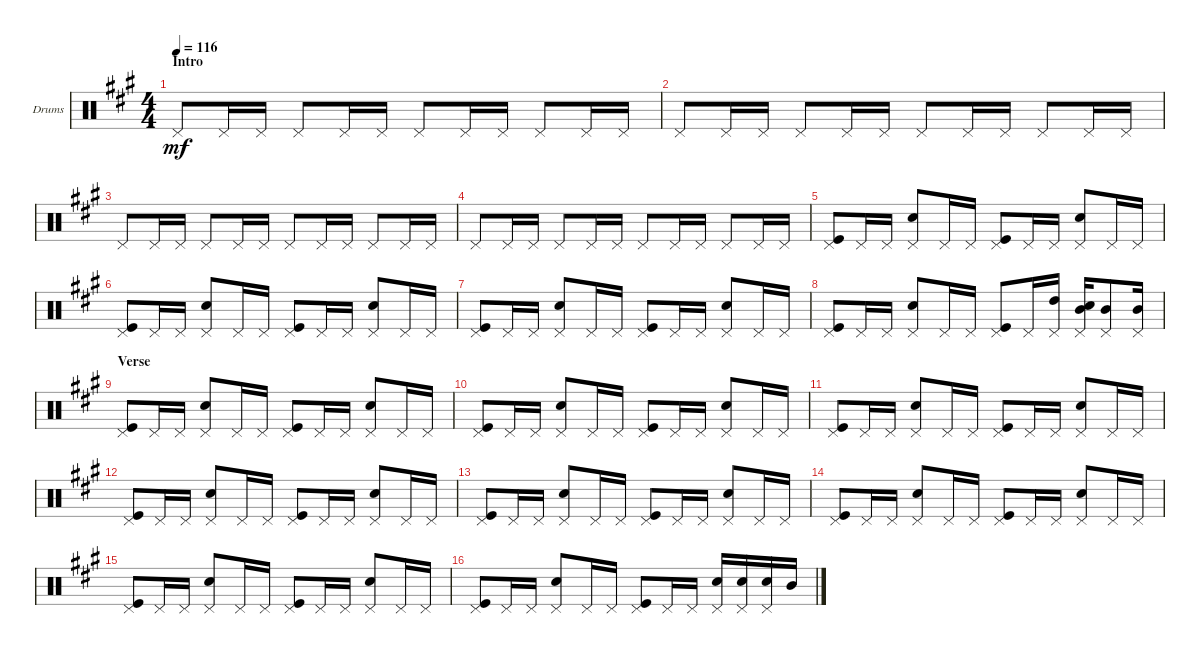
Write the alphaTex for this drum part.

\defaultSystemsLayout 4
\bracketExtendMode groupsimilarinstruments
\firstSystemTrackNameOrientation horizontal
\otherSystemsTrackNameOrientation horizontal
\track ("Drumkit" "Drums") {instrument percussion}
\staff {score}
\articulation defaults
\ts (4 4)
\section ("" "Intro")
\tempo 116
\clef neutral
\ks a "Pedal Hi-Hat (hit)".8{dy mf} "Pedal Hi-Hat (hit)".16 "Pedal Hi-Hat (hit)".16 "Pedal Hi-Hat (hit)".8 "Pedal Hi-Hat (hit)".16 "Pedal Hi-Hat (hit)".16 "Pedal Hi-Hat (hit)".8 "Pedal Hi-Hat (hit)".16 "Pedal Hi-Hat (hit)".16 "Pedal Hi-Hat (hit)".8 "Pedal Hi-Hat (hit)".16 "Pedal Hi-Hat (hit)".16
|
"Pedal Hi-Hat (hit)".8 "Pedal Hi-Hat (hit)".16 "Pedal Hi-Hat (hit)".16 "Pedal Hi-Hat (hit)".8 "Pedal Hi-Hat (hit)".16 "Pedal Hi-Hat (hit)".16 "Pedal Hi-Hat (hit)".8 "Pedal Hi-Hat (hit)".16 "Pedal Hi-Hat (hit)".16 "Pedal Hi-Hat (hit)".8 "Pedal Hi-Hat (hit)".16 "Pedal Hi-Hat (hit)".16 |
"Pedal Hi-Hat (hit)".8 "Pedal Hi-Hat (hit)".16 "Pedal Hi-Hat (hit)".16 "Pedal Hi-Hat (hit)".8 "Pedal Hi-Hat (hit)".16 "Pedal Hi-Hat (hit)".16 "Pedal Hi-Hat (hit)".8 "Pedal Hi-Hat (hit)".16 "Pedal Hi-Hat (hit)".16 "Pedal Hi-Hat (hit)".8 "Pedal Hi-Hat (hit)".16 "Pedal Hi-Hat (hit)".16 |
"Pedal Hi-Hat (hit)".8 "Pedal Hi-Hat (hit)".16 "Pedal Hi-Hat (hit)".16 "Pedal Hi-Hat (hit)".8 "Pedal Hi-Hat (hit)".16 "Pedal Hi-Hat (hit)".16 "Pedal Hi-Hat (hit)".8 "Pedal Hi-Hat (hit)".16 "Pedal Hi-Hat (hit)".16 "Pedal Hi-Hat (hit)".8 "Pedal Hi-Hat (hit)".16 "Pedal Hi-Hat (hit)".16 |
("Pedal Hi-Hat (hit)" "Kick (hit)").8 "Pedal Hi-Hat (hit)".16 "Pedal Hi-Hat (hit)".16 ("Pedal Hi-Hat (hit)" "Snare (hit) 2").8 "Pedal Hi-Hat (hit)".16 "Pedal Hi-Hat (hit)".16 ("Pedal Hi-Hat (hit)" "Kick (hit)").8 "Pedal Hi-Hat (hit)".16 "Pedal Hi-Hat (hit)".16 ("Pedal Hi-Hat (hit)" "Snare (hit) 2").8 "Pedal Hi-Hat (hit)".16 "Pedal Hi-Hat (hit)".16 |
("Pedal Hi-Hat (hit)" "Kick (hit)").8 "Pedal Hi-Hat (hit)".16 "Pedal Hi-Hat (hit)".16 ("Pedal Hi-Hat (hit)" "Snare (hit) 2").8 "Pedal Hi-Hat (hit)".16 "Pedal Hi-Hat (hit)".16 ("Pedal Hi-Hat (hit)" "Kick (hit)").8 "Pedal Hi-Hat (hit)".16 "Pedal Hi-Hat (hit)".16 ("Pedal Hi-Hat (hit)" "Snare (hit) 2").8 "Pedal Hi-Hat (hit)".16 "Pedal Hi-Hat (hit)".16 |
("Pedal Hi-Hat (hit)" "Kick (hit)").8 "Pedal Hi-Hat (hit)".16 "Pedal Hi-Hat (hit)".16 ("Pedal Hi-Hat (hit)" "Snare (hit) 2").8 "Pedal Hi-Hat (hit)".16 "Pedal Hi-Hat (hit)".16 ("Pedal Hi-Hat (hit)" "Kick (hit)").8 "Pedal Hi-Hat (hit)".16 "Pedal Hi-Hat (hit)".16 ("Pedal Hi-Hat (hit)" "Snare (hit) 2").8 "Pedal Hi-Hat (hit)".16 "Pedal Hi-Hat (hit)".16 |
("Pedal Hi-Hat (hit)" "Kick (hit)").8 "Pedal Hi-Hat (hit)".16 "Pedal Hi-Hat (hit)".16 ("Pedal Hi-Hat (hit)" "Snare (hit) 2").8 "Pedal Hi-Hat (hit)".16 "Pedal Hi-Hat (hit)".16 ("Pedal Hi-Hat (hit)" "Kick (hit)").8 "Pedal Hi-Hat (hit)".16 ("Pedal Hi-Hat (hit)" "High Tom (hit)").16 ("Pedal Hi-Hat (hit)" "Snare (hit) 2" "Mid Tom (hit)").16 ("Pedal Hi-Hat (hit)" "Mid Tom (hit)").8 ("Pedal Hi-Hat (hit)" "Mid Tom (hit)").16 |
\section ("" "Verse")
("Pedal Hi-Hat (hit)" "Kick (hit)").8 "Pedal Hi-Hat (hit)".16 "Pedal Hi-Hat (hit)".16 ("Pedal Hi-Hat (hit)" "Snare (hit) 2").8 "Pedal Hi-Hat (hit)".16 "Pedal Hi-Hat (hit)".16 ("Pedal Hi-Hat (hit)" "Kick (hit)").8 "Pedal Hi-Hat (hit)".16 "Pedal Hi-Hat (hit)".16 ("Pedal Hi-Hat (hit)" "Snare (hit) 2").8 "Pedal Hi-Hat (hit)".16 "Pedal Hi-Hat (hit)".16 |
("Pedal Hi-Hat (hit)" "Kick (hit)").8 "Pedal Hi-Hat (hit)".16 "Pedal Hi-Hat (hit)".16 ("Pedal Hi-Hat (hit)" "Snare (hit) 2").8 "Pedal Hi-Hat (hit)".16 "Pedal Hi-Hat (hit)".16 ("Pedal Hi-Hat (hit)" "Kick (hit)").8 "Pedal Hi-Hat (hit)".16 "Pedal Hi-Hat (hit)".16 ("Pedal Hi-Hat (hit)" "Snare (hit) 2").8 "Pedal Hi-Hat (hit)".16 "Pedal Hi-Hat (hit)".16 |
("Pedal Hi-Hat (hit)" "Kick (hit)").8 "Pedal Hi-Hat (hit)".16 "Pedal Hi-Hat (hit)".16 ("Pedal Hi-Hat (hit)" "Snare (hit) 2").8 "Pedal Hi-Hat (hit)".16 "Pedal Hi-Hat (hit)".16 ("Pedal Hi-Hat (hit)" "Kick (hit)").8 "Pedal Hi-Hat (hit)".16 "Pedal Hi-Hat (hit)".16 ("Pedal Hi-Hat (hit)" "Snare (hit) 2").8 "Pedal Hi-Hat (hit)".16 "Pedal Hi-Hat (hit)".16 |
("Pedal Hi-Hat (hit)" "Kick (hit)").8 "Pedal Hi-Hat (hit)".16 "Pedal Hi-Hat (hit)".16 ("Pedal Hi-Hat (hit)" "Snare (hit) 2").8 "Pedal Hi-Hat (hit)".16 "Pedal Hi-Hat (hit)".16 ("Pedal Hi-Hat (hit)" "Kick (hit)").8 "Pedal Hi-Hat (hit)".16 "Pedal Hi-Hat (hit)".16 ("Pedal Hi-Hat (hit)" "Snare (hit) 2").8 "Pedal Hi-Hat (hit)".16 "Pedal Hi-Hat (hit)".16 |
("Pedal Hi-Hat (hit)" "Kick (hit)").8 "Pedal Hi-Hat (hit)".16 "Pedal Hi-Hat (hit)".16 ("Pedal Hi-Hat (hit)" "Snare (hit) 2").8 "Pedal Hi-Hat (hit)".16 "Pedal Hi-Hat (hit)".16 ("Pedal Hi-Hat (hit)" "Kick (hit)").8 "Pedal Hi-Hat (hit)".16 "Pedal Hi-Hat (hit)".16 ("Pedal Hi-Hat (hit)" "Snare (hit) 2").8 "Pedal Hi-Hat (hit)".16 "Pedal Hi-Hat (hit)".16 |
("Pedal Hi-Hat (hit)" "Kick (hit)").8 "Pedal Hi-Hat (hit)".16 "Pedal Hi-Hat (hit)".16 ("Pedal Hi-Hat (hit)" "Snare (hit) 2").8 "Pedal Hi-Hat (hit)".16 "Pedal Hi-Hat (hit)".16 ("Pedal Hi-Hat (hit)" "Kick (hit)").8 "Pedal Hi-Hat (hit)".16 "Pedal Hi-Hat (hit)".16 ("Pedal Hi-Hat (hit)" "Snare (hit) 2").8 "Pedal Hi-Hat (hit)".16 "Pedal Hi-Hat (hit)".16 |
("Pedal Hi-Hat (hit)" "Kick (hit)").8 "Pedal Hi-Hat (hit)".16 "Pedal Hi-Hat (hit)".16 ("Pedal Hi-Hat (hit)" "Snare (hit) 2").8 "Pedal Hi-Hat (hit)".16 "Pedal Hi-Hat (hit)".16 ("Pedal Hi-Hat (hit)" "Kick (hit)").8 "Pedal Hi-Hat (hit)".16 "Pedal Hi-Hat (hit)".16 ("Pedal Hi-Hat (hit)" "Snare (hit) 2").8 "Pedal Hi-Hat (hit)".16 "Pedal Hi-Hat (hit)".16 |
("Pedal Hi-Hat (hit)" "Kick (hit)").8 "Pedal Hi-Hat (hit)".16 "Pedal Hi-Hat (hit)".16 ("Pedal Hi-Hat (hit)" "Snare (hit) 2").8 "Pedal Hi-Hat (hit)".16 "Pedal Hi-Hat (hit)".16 ("Pedal Hi-Hat (hit)" "Kick (hit)").8 "Pedal Hi-Hat (hit)".16 "Pedal Hi-Hat (hit)".16 ("Pedal Hi-Hat (hit)" "Snare (hit) 2").16 ("Pedal Hi-Hat (hit)" "Snare (hit) 2").16 ("Pedal Hi-Hat (hit)" "Snare (hit) 2").16 "Mid Tom (hit)".16
